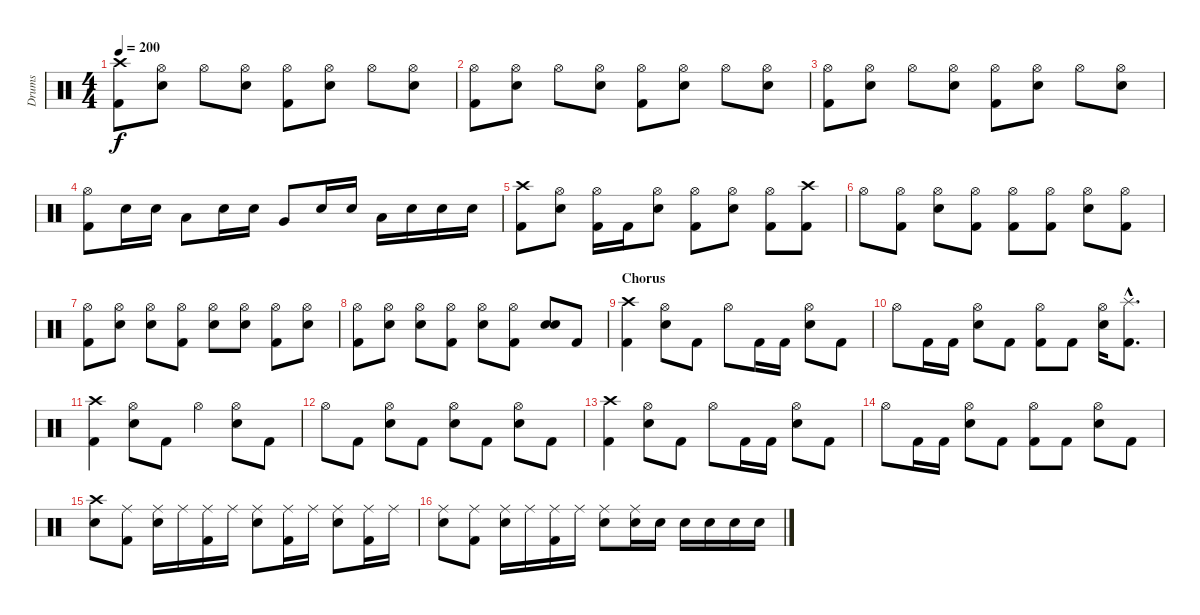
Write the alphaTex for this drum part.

\track ("Drums" "Drums") {instrument percussion}
\staff {score}
\articulation defaults
\ts (4 4)
\tempo 200
\clef neutral
\ks c
("Crash high (hit)" "Kick (hit) 2").8{dy f} ("Hi-Hat (open)" "Electric Snare (hit)").8 "Hi-Hat (open)".8 ("Hi-Hat (open)" "Electric Snare (hit)").8 ("Hi-Hat (open)" "Kick (hit) 2").8 ("Hi-Hat (open)" "Electric Snare (hit)").8 "Hi-Hat (open)".8 ("Hi-Hat (open)" "Electric Snare (hit)").8 |
("Hi-Hat (open)" "Kick (hit) 2").8 ("Hi-Hat (open)" "Electric Snare (hit)").8 "Hi-Hat (open)".8 ("Hi-Hat (open)" "Electric Snare (hit)").8 ("Hi-Hat (open)" "Kick (hit) 2").8 ("Hi-Hat (open)" "Electric Snare (hit)").8 "Hi-Hat (open)".8 ("Hi-Hat (open)" "Electric Snare (hit)").8 |
("Hi-Hat (open)" "Kick (hit) 2").8 ("Hi-Hat (open)" "Electric Snare (hit)").8 "Hi-Hat (open)".8 ("Hi-Hat (open)" "Electric Snare (hit)").8 ("Hi-Hat (open)" "Kick (hit) 2").8 ("Hi-Hat (open)" "Electric Snare (hit)").8 "Hi-Hat (open)".8 ("Hi-Hat (open)" "Electric Snare (hit)").8 |
("Hi-Hat (open)" "Kick (hit) 2").8 "Electric Snare (hit)".16 "Electric Snare (hit)".16 "Low Tom (hit)".8 "Electric Snare (hit)".16 "Electric Snare (hit)".16 "Very Low Tom (hit)".8 "Electric Snare (hit)".16 "Electric Snare (hit)".16 "Low Floor Tom (hit)".16 "Electric Snare (hit)".16 "Electric Snare (hit)".16 "Electric Snare (hit)".16 |
("Crash high (hit)" "Kick (hit) 2").8 ("Hi-Hat (open)" "Electric Snare (hit)").8 ("Hi-Hat (open)" "Kick (hit) 2").16 "Kick (hit) 2".16 ("Hi-Hat (open)" "Electric Snare (hit)").8 ("Hi-Hat (open)" "Kick (hit) 2").8 ("Hi-Hat (open)" "Electric Snare (hit)").8 ("Hi-Hat (open)" "Kick (hit) 2").8 ("Crash high (hit)" "Kick (hit) 2").8 |
"Hi-Hat (open)".8 ("Hi-Hat (open)" "Kick (hit) 2").8 ("Hi-Hat (open)" "Electric Snare (hit)").8 ("Hi-Hat (open)" "Kick (hit) 2").8 ("Hi-Hat (open)" "Kick (hit) 2").8 ("Hi-Hat (open)" "Kick (hit) 2").8 ("Hi-Hat (open)" "Electric Snare (hit)").8 ("Hi-Hat (open)" "Kick (hit) 2").8 |
("Hi-Hat (open)" "Kick (hit) 2").8 ("Hi-Hat (open)" "Electric Snare (hit)").8 ("Hi-Hat (open)" "Electric Snare (hit)").8 ("Hi-Hat (open)" "Kick (hit) 2").8 ("Hi-Hat (open)" "Electric Snare (hit)").8 ("Hi-Hat (open)" "Electric Snare (hit)").8 ("Hi-Hat (open)" "Kick (hit) 2").8 ("Hi-Hat (open)" "Electric Snare (hit)").8 |
("Hi-Hat (open)" "Kick (hit) 2").8 ("Hi-Hat (open)" "Electric Snare (hit)").8 ("Hi-Hat (open)" "Electric Snare (hit)").8 ("Hi-Hat (open)" "Kick (hit) 2").8 ("Hi-Hat (open)" "Electric Snare (hit)").8 ("Hi-Hat (open)" "Kick (hit) 2").8 ("Electric Snare (hit)" "Electric Snare (hit)").8 "Kick (hit) 2".8 |
\section ("" "Chorus")
("Kick (hit) 2" "Crash high (hit)").4 ("Electric Snare (hit)" "Hi-Hat (open)").8 "Kick (hit) 2".8 "Hi-Hat (open)".8 "Kick (hit) 2".16 "Kick (hit) 2".16 ("Electric Snare (hit)" "Hi-Hat (open)").8 "Kick (hit) 2".8 |
"Hi-Hat (open)".8 "Kick (hit) 2".16 "Kick (hit) 2".16 ("Electric Snare (hit)" "Hi-Hat (open)").8 "Kick (hit) 2".8 ("Kick (hit) 2" "Hi-Hat (open)").8 "Kick (hit) 2".8 ("Electric Snare (hit)" "Hi-Hat (open)").16 ("Kick (hit) 2"{hac} "Splash (hit)"{hac}).8{d} |
("Kick (hit) 2" "Crash high (hit)").4 ("Electric Snare (hit)" "Hi-Hat (open)").8 "Kick (hit) 2".8 "Hi-Hat (open)".4 ("Electric Snare (hit)" "Hi-Hat (open)").8 "Kick (hit) 2".8 |
"Hi-Hat (open)".8 "Kick (hit) 2".8 ("Electric Snare (hit)" "Hi-Hat (open)").8 "Kick (hit) 2".8 ("Electric Snare (hit)" "Hi-Hat (open)").8 "Kick (hit) 2".8 ("Electric Snare (hit)" "Hi-Hat (open)").8 "Kick (hit) 2".8 |
("Kick (hit) 2" "Crash high (hit)").4 ("Electric Snare (hit)" "Hi-Hat (open)").8 "Kick (hit) 2".8 "Hi-Hat (open)".8 "Kick (hit) 2".16 "Kick (hit) 2".16 ("Electric Snare (hit)" "Hi-Hat (open)").8 "Kick (hit) 2".8 |
"Hi-Hat (open)".8 "Kick (hit) 2".16 "Kick (hit) 2".16 ("Electric Snare (hit)" "Hi-Hat (open)").8 "Kick (hit) 2".8 ("Kick (hit) 2" "Hi-Hat (open)").8 "Kick (hit) 2".8 ("Electric Snare (hit)" "Hi-Hat (open)").8 "Kick (hit) 2".8 |
("Electric Snare (hit)" "Crash high (hit)").8 ("Kick (hit) 2" "Ride (middle)").8 ("Electric Snare (hit)" "Ride (middle)").16 "Ride (middle)".16 ("Kick (hit) 2" "Ride (middle)").16 "Ride (middle)".16 ("Electric Snare (hit)" "Ride (middle)").8 ("Kick (hit) 2" "Ride (middle)").16 "Ride (middle)".16 ("Electric Snare (hit)" "Ride (middle)").8 ("Kick (hit) 2" "Ride (middle)").16 "Ride (middle)".16 |
("Electric Snare (hit)" "Ride (middle)").8 ("Kick (hit) 2" "Ride (middle)").8 ("Electric Snare (hit)" "Ride (middle)").16 "Ride (middle)".16 ("Kick (hit) 2" "Ride (middle)").16 "Ride (middle)".16 ("Electric Snare (hit)" "Ride (middle)").8 ("Electric Snare (hit)" "Ride (middle)").16 "Electric Snare (hit)".16 "Electric Snare (hit)".16 "Electric Snare (hit)".16 "Electric Snare (hit)".16 "Electric Snare (hit)".16
